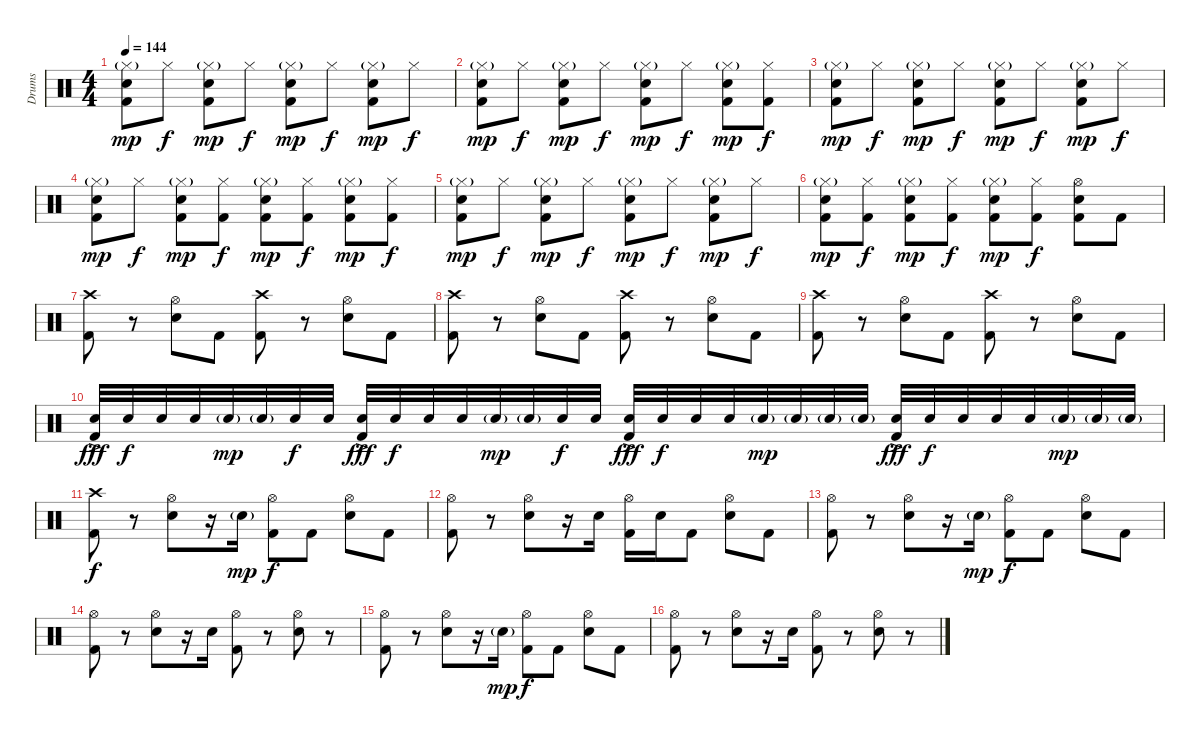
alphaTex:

\track ("Drums" "Drums") {instrument percussion}
\staff {score}
\articulation defaults
\ts (4 4)
\tempo 144
\clef neutral
\ks c
("Hi-Hat (closed)"{g} "Snare (hit) 2" "Kick (hit) 2").8{dy mp} "Hi-Hat (closed)".8{dy f} ("Hi-Hat (closed)"{g} "Snare (hit) 2" "Kick (hit) 2").8{dy mp} "Hi-Hat (closed)".8{dy f} ("Hi-Hat (closed)"{g} "Snare (hit) 2" "Kick (hit) 2").8{dy mp} "Hi-Hat (closed)".8{dy f} ("Hi-Hat (closed)"{g} "Snare (hit) 2" "Kick (hit) 2").8{dy mp} "Hi-Hat (closed)".8{dy f} |
("Hi-Hat (closed)"{g} "Snare (hit) 2" "Kick (hit) 2").8{dy mp} "Hi-Hat (closed)".8{dy f} ("Hi-Hat (closed)"{g} "Snare (hit) 2" "Kick (hit) 2").8{dy mp} "Hi-Hat (closed)".8{dy f} ("Hi-Hat (closed)"{g} "Snare (hit) 2" "Kick (hit) 2").8{dy mp} "Hi-Hat (closed)".8{dy f} ("Hi-Hat (closed)"{g} "Snare (hit) 2" "Kick (hit) 2").8{dy mp} ("Hi-Hat (closed)" "Kick (hit) 2").8{dy f} |
("Hi-Hat (closed)"{g} "Snare (hit) 2" "Kick (hit) 2").8{dy mp} "Hi-Hat (closed)".8{dy f} ("Hi-Hat (closed)"{g} "Snare (hit) 2" "Kick (hit) 2").8{dy mp} "Hi-Hat (closed)".8{dy f} ("Hi-Hat (closed)"{g} "Snare (hit) 2" "Kick (hit) 2").8{dy mp} "Hi-Hat (closed)".8{dy f} ("Hi-Hat (closed)"{g} "Snare (hit) 2" "Kick (hit) 2").8{dy mp} "Hi-Hat (closed)".8{dy f} |
("Hi-Hat (closed)"{g} "Snare (hit) 2" "Kick (hit) 2").8{dy mp} "Hi-Hat (closed)".8{dy f} ("Hi-Hat (closed)"{g} "Snare (hit) 2" "Kick (hit) 2").8{dy mp} ("Hi-Hat (closed)" "Kick (hit) 2").8{dy f} ("Hi-Hat (closed)"{g} "Snare (hit) 2" "Kick (hit) 2").8{dy mp} ("Hi-Hat (closed)" "Kick (hit) 2").8{dy f} ("Hi-Hat (closed)"{g} "Snare (hit) 2" "Kick (hit) 2").8{dy mp} ("Hi-Hat (closed)" "Kick (hit) 2").8{dy f} |
("Hi-Hat (closed)"{g} "Snare (hit) 2" "Kick (hit) 2").8{dy mp} "Hi-Hat (closed)".8{dy f} ("Hi-Hat (closed)"{g} "Snare (hit) 2" "Kick (hit) 2").8{dy mp} "Hi-Hat (closed)".8{dy f} ("Hi-Hat (closed)"{g} "Snare (hit) 2" "Kick (hit) 2").8{dy mp} "Hi-Hat (closed)".8{dy f} ("Hi-Hat (closed)"{g} "Snare (hit) 2" "Kick (hit) 2").8{dy mp} "Hi-Hat (closed)".8{dy f} |
("Hi-Hat (closed)"{g} "Snare (hit) 2" "Kick (hit) 2").8{dy mp} ("Hi-Hat (closed)" "Kick (hit) 2").8{dy f} ("Hi-Hat (closed)"{g} "Snare (hit) 2" "Kick (hit) 2").8{dy mp} ("Hi-Hat (closed)" "Kick (hit) 2").8{dy f} ("Hi-Hat (closed)"{g} "Snare (hit) 2" "Kick (hit) 2").8{dy mp} ("Hi-Hat (closed)" "Kick (hit) 2").8{dy f} ("Hi-Hat (open)" "Snare (hit) 2" "Kick (hit) 2").8 "Kick (hit) 2".8 |
("Crash high (hit)" "Kick (hit) 2").8 r.8 ("Hi-Hat (open)" "Snare (hit) 2").8 "Kick (hit) 2".8 ("Crash high (hit)" "Kick (hit) 2").8 r.8 ("Hi-Hat (open)" "Snare (hit) 2").8 "Kick (hit) 2".8 |
("Crash high (hit)" "Kick (hit) 2").8 r.8 ("Hi-Hat (open)" "Snare (hit) 2").8 "Kick (hit) 2".8 ("Crash high (hit)" "Kick (hit) 2").8 r.8 ("Hi-Hat (open)" "Snare (hit) 2").8 "Kick (hit) 2".8 |
("Crash high (hit)" "Kick (hit) 2").8 r.8 ("Hi-Hat (open)" "Snare (hit) 2").8 "Kick (hit) 2".8 ("Crash high (hit)" "Kick (hit) 2").8 r.8 ("Hi-Hat (open)" "Snare (hit) 2").8 "Kick (hit) 2".8 |
("Snare (hit) 2"{ac} "Kick (hit) 2").32{dy fff} "Snare (hit) 2".32{dy f} "Snare (hit) 2".32 "Snare (hit) 2".32 "Snare (hit) 2"{g}.32{dy mp} "Snare (hit) 2"{g}.32 "Snare (hit) 2".32{dy f} "Snare (hit) 2".32 ("Snare (hit) 2"{ac} "Kick (hit) 2").32{dy fff} "Snare (hit) 2".32{dy f} "Snare (hit) 2".32 "Snare (hit) 2".32 "Snare (hit) 2"{g}.32{dy mp} "Snare (hit) 2"{g}.32 "Snare (hit) 2".32{dy f} "Snare (hit) 2".32 ("Snare (hit) 2"{ac} "Kick (hit) 2").32{dy fff} "Snare (hit) 2".32{dy f} "Snare (hit) 2".32 "Snare (hit) 2".32 "Snare (hit) 2"{g}.32{dy mp} "Snare (hit) 2"{g}.32 "Snare (hit) 2"{g}.32 "Snare (hit) 2"{g}.32 ("Snare (hit) 2"{ac} "Kick (hit) 2").32{dy fff} "Snare (hit) 2".32{dy f} "Snare (hit) 2".32 "Snare (hit) 2".32 "Snare (hit) 2".32 "Snare (hit) 2"{g}.32{dy mp} "Snare (hit) 2"{g}.32 "Snare (hit) 2"{g}.32 |
("Crash high (hit)" "Kick (hit) 2").8{dy f} r.8 ("Hi-Hat (open)" "Snare (hit) 2").8 r.16 "Snare (hit) 2"{g}.16{dy mp} ("Hi-Hat (open)" "Kick (hit) 2").8{dy f} "Kick (hit) 2".8 ("Hi-Hat (open)" "Snare (hit) 2").8 "Kick (hit) 2".8 |
("Hi-Hat (open)" "Kick (hit) 2").8 r.8 ("Hi-Hat (open)" "Snare (hit) 2").8 r.16 "Snare (hit) 2".16 ("Hi-Hat (open)" "Kick (hit) 2").16 "Snare (hit) 2".16 "Kick (hit) 2".8 ("Hi-Hat (open)" "Snare (hit) 2").8 "Kick (hit) 2".8 |
("Hi-Hat (open)" "Kick (hit) 2").8 r.8 ("Hi-Hat (open)" "Snare (hit) 2").8 r.16 "Snare (hit) 2"{g}.16{dy mp} ("Hi-Hat (open)" "Kick (hit) 2").8{dy f} "Kick (hit) 2".8 ("Hi-Hat (open)" "Snare (hit) 2").8 "Kick (hit) 2".8 |
("Hi-Hat (open)" "Kick (hit) 2").8 r.8 ("Hi-Hat (open)" "Snare (hit) 2").8 r.16 "Snare (hit) 2".16 ("Hi-Hat (open)" "Kick (hit) 2").8 r.8 ("Hi-Hat (open)" "Snare (hit) 2").8 r.8 |
("Hi-Hat (open)" "Kick (hit) 2").8 r.8 ("Hi-Hat (open)" "Snare (hit) 2").8 r.16 "Snare (hit) 2"{g}.16{dy mp} ("Hi-Hat (open)" "Kick (hit) 2").8{dy f} "Kick (hit) 2".8 ("Hi-Hat (open)" "Snare (hit) 2").8 "Kick (hit) 2".8 |
("Hi-Hat (open)" "Kick (hit) 2").8 r.8 ("Hi-Hat (open)" "Snare (hit) 2").8 r.16 "Snare (hit) 2".16 ("Hi-Hat (open)" "Kick (hit) 2").8 r.8 ("Hi-Hat (open)" "Snare (hit) 2").8 r.8
